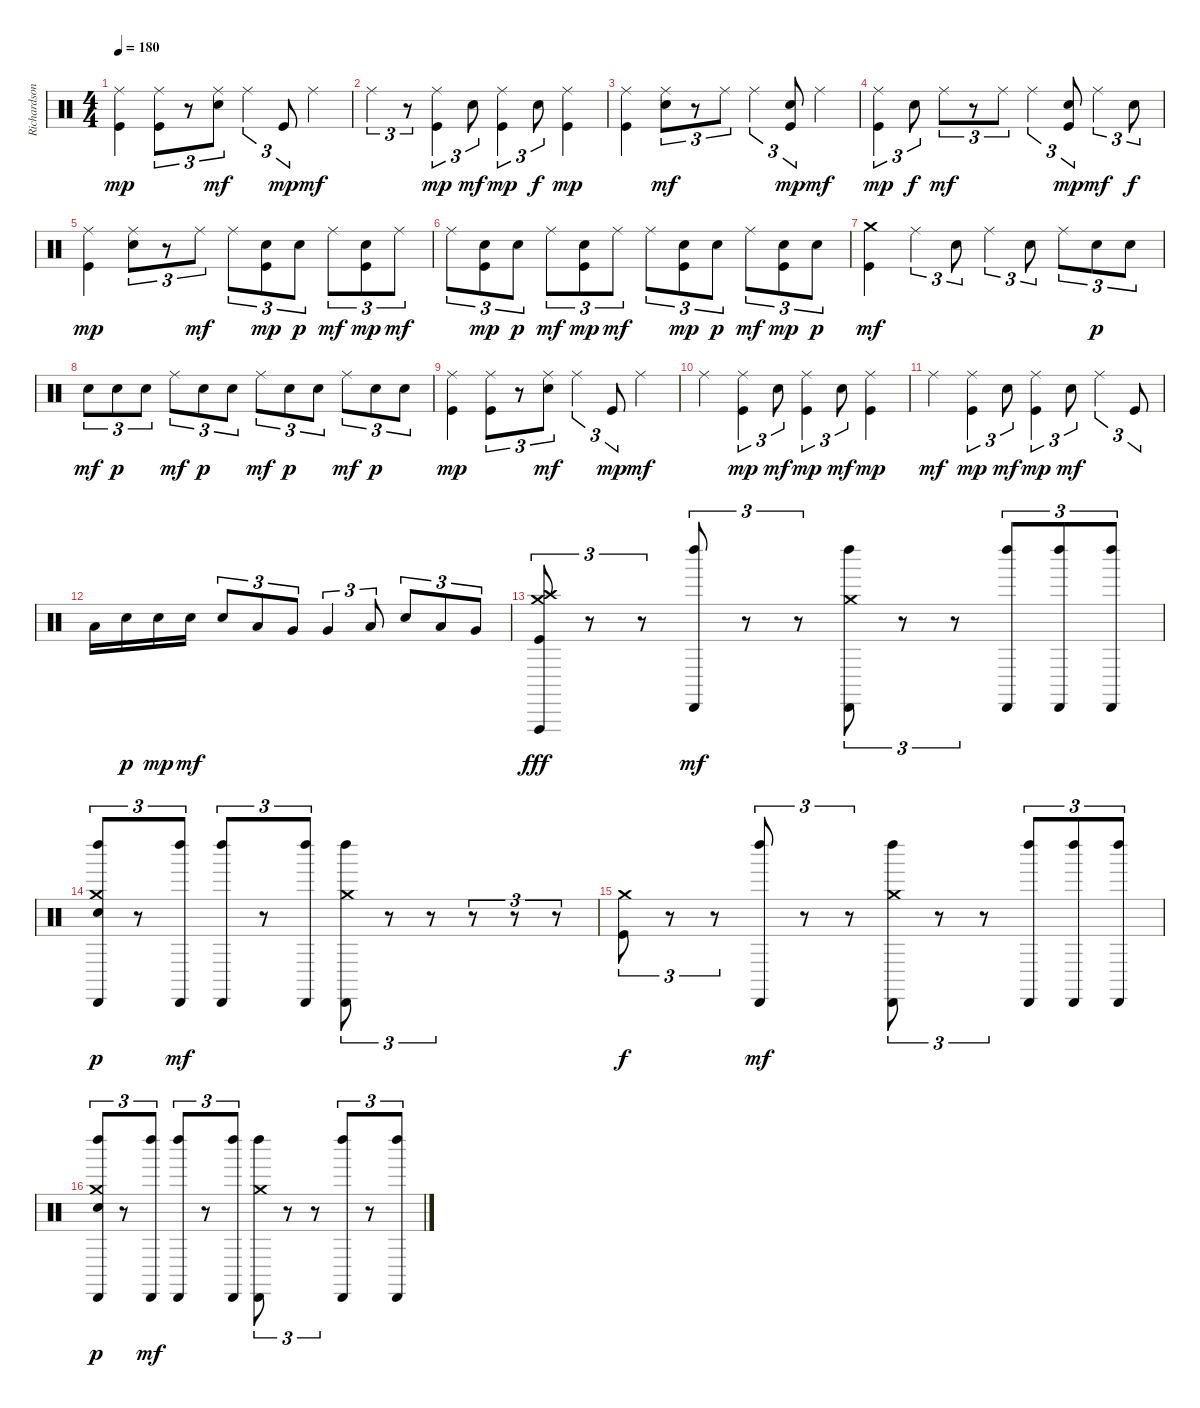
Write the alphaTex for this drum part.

\track ("Richardson" "Richardson") {instrument percussion}
\staff {score}
\articulation defaults
\ts (4 4)
\tempo 180
\clef neutral
\ks c
("Ride (middle)" "Kick (hit)").4{dy mp} ("Ride (middle)" "Kick (hit)").8{tu (3 2)} r.8{tu (3 2)} ("Ride (middle)" "Electric Snare (hit)").8{tu (3 2) dy mf} "Ride (middle)".4{tu (3 2)} "Kick (hit)".8{tu (3 2) dy mp} "Ride (middle)".4{dy mf} |
"Ride (middle)".4{tu (3 2)} r.8{tu (3 2)} ("Ride (middle)" "Kick (hit)").4{tu (3 2) dy mp} "Electric Snare (hit)".8{tu (3 2) dy mf} ("Ride (middle)" "Kick (hit)").4{tu (3 2) dy mp} "Electric Snare (hit)".8{tu (3 2) dy f} ("Ride (middle)" "Kick (hit)").4{dy mp} |
("Ride (middle)" "Kick (hit)").4 ("Ride (middle)" "Electric Snare (hit)").8{tu (3 2) dy mf} r.8{tu (3 2)} "Ride (middle)".8{tu (3 2)} "Ride (middle)".4{tu (3 2)} ("Electric Snare (hit)" "Kick (hit)").8{tu (3 2) dy mp} "Ride (middle)".4{dy mf} |
("Ride (middle)" "Kick (hit)").4{tu (3 2) dy mp} "Electric Snare (hit)".8{tu (3 2) dy f} "Ride (middle)".8{tu (3 2) dy mf} r.8{tu (3 2)} "Ride (middle)".8{tu (3 2)} "Ride (middle)".4{tu (3 2)} ("Electric Snare (hit)" "Kick (hit)").8{tu (3 2) dy mp} "Ride (middle)".4{tu (3 2) dy mf} "Electric Snare (hit)".8{tu (3 2) dy f} |
("Ride (middle)" "Kick (hit)").4{dy mp} ("Ride (middle)" "Electric Snare (hit)").8{tu (3 2)} r.8{tu (3 2)} "Ride (middle)".8{tu (3 2) dy mf} "Ride (middle)".8{tu (3 2)} ("Electric Snare (hit)" "Kick (hit)").8{tu (3 2) dy mp} "Electric Snare (hit)".8{tu (3 2) dy p} "Ride (middle)".8{tu (3 2) dy mf} ("Electric Snare (hit)" "Kick (hit)").8{tu (3 2) dy mp} "Ride (middle)".8{tu (3 2) dy mf} |
"Ride (middle)".8{tu (3 2)} ("Electric Snare (hit)" "Kick (hit)").8{tu (3 2) dy mp} "Electric Snare (hit)".8{tu (3 2) dy p} "Ride (middle)".8{tu (3 2) dy mf} ("Electric Snare (hit)" "Kick (hit)").8{tu (3 2) dy mp} "Ride (middle)".8{tu (3 2) dy mf} "Ride (middle)".8{tu (3 2)} ("Electric Snare (hit)" "Kick (hit)").8{tu (3 2) dy mp} "Electric Snare (hit)".8{tu (3 2) dy p} "Ride (middle)".8{tu (3 2) dy mf} ("Electric Snare (hit)" "Kick (hit)").8{tu (3 2) dy mp} "Electric Snare (hit)".8{tu (3 2) dy p} |
("Crash medium (hit)" "Kick (hit)").4{dy mf} "Ride (middle)".4{tu (3 2)} "Electric Snare (hit)".8{tu (3 2)} "Ride (middle)".4{tu (3 2)} "Electric Snare (hit)".8{tu (3 2)} "Ride (middle)".8{tu (3 2)} "Electric Snare (hit)".8{tu (3 2) dy p} "Electric Snare (hit)".8{tu (3 2)} |
"Electric Snare (hit)".8{tu (3 2) dy mf} "Electric Snare (hit)".8{tu (3 2) dy p} "Electric Snare (hit)".8{tu (3 2)} "Ride (middle)".8{tu (3 2) dy mf} "Electric Snare (hit)".8{tu (3 2) dy p} "Electric Snare (hit)".8{tu (3 2)} "Ride (middle)".8{tu (3 2) dy mf} "Electric Snare (hit)".8{tu (3 2) dy p} "Electric Snare (hit)".8{tu (3 2)} "Ride (middle)".8{tu (3 2) dy mf} "Electric Snare (hit)".8{tu (3 2) dy p} "Electric Snare (hit)".8{tu (3 2)} |
("Ride (middle)" "Kick (hit)").4{dy mp} ("Ride (middle)" "Kick (hit)").8{tu (3 2)} r.8{tu (3 2)} ("Ride (middle)" "Electric Snare (hit)").8{tu (3 2) dy mf} "Ride (middle)".4{tu (3 2)} "Kick (hit)".8{tu (3 2) dy mp} "Ride (middle)".4{dy mf} |
"Ride (middle)".4 ("Ride (middle)" "Kick (hit)").4{tu (3 2) dy mp} "Electric Snare (hit)".8{tu (3 2) dy mf} ("Ride (middle)" "Kick (hit)").4{tu (3 2) dy mp} "Electric Snare (hit)".8{tu (3 2) dy mf} ("Ride (middle)" "Kick (hit)").4{dy mp} |
"Ride (middle)".4{dy mf} ("Ride (middle)" "Kick (hit)").4{tu (3 2) dy mp} "Electric Snare (hit)".8{tu (3 2) dy mf} ("Ride (middle)" "Kick (hit)").4{tu (3 2) dy mp} "Electric Snare (hit)".8{tu (3 2) dy mf} "Ride (middle)".4{tu (3 2)} "Kick (hit)".8{tu (3 2)} |
"Low Tom (hit)".16 "Electric Snare (hit)".16{dy p} "Electric Snare (hit)".16{dy mp} "Electric Snare (hit)".16{dy mf} "Electric Snare (hit)".8{tu (3 2)} "Low Tom (hit)".8{tu (3 2)} "Very Low Tom (hit)".8{tu (3 2)} "Very Low Tom (hit)".4{tu (3 2)} "Low Floor Tom (hit)".8{tu (3 2)} "Electric Snare (hit)".8{tu (3 2)} "Low Tom (hit)".8{tu (3 2)} "Very Low Tom (hit)".8{tu (3 2)} |
("Crash medium (hit)" "Crash high (hit)" "Vibraslap (hit)" "Kick (hit)").8{tu (3 2) dy fff} r.8{tu (3 2)} r.8{tu (3 2)} ("Cabasa (hit)" "Left Maraca (hit)").8{tu (3 2) dy mf} r.8{tu (3 2)} r.8{tu (3 2)} ("Crash medium (hit)" "Cabasa (hit)" "Left Maraca (hit)").8{tu (3 2)} r.8{tu (3 2)} r.8{tu (3 2)} ("Cabasa (hit)" "Left Maraca (hit)").8{tu (3 2)} ("Cabasa (hit)" "Left Maraca (hit)").8{tu (3 2)} ("Cabasa (hit)" "Left Maraca (hit)").8{tu (3 2)} |
("Crash medium (hit)" "Left Maraca (hit)" "Electric Snare (hit)" "Cabasa (hit)").8{tu (3 2) dy p} r.8{tu (3 2)} ("Cabasa (hit)" "Left Maraca (hit)").8{tu (3 2) dy mf} ("Cabasa (hit)" "Left Maraca (hit)").8{tu (3 2)} r.8{tu (3 2)} ("Cabasa (hit)" "Left Maraca (hit)").8{tu (3 2)} ("Crash medium (hit)" "Cabasa (hit)" "Left Maraca (hit)").8{tu (3 2)} r.8{tu (3 2)} r.8{tu (3 2)} r.8{tu (3 2)} r.8{tu (3 2)} r.8{tu (3 2)} |
("Crash medium (hit)" "Kick (hit)").8{tu (3 2) dy f} r.8{tu (3 2)} r.8{tu (3 2)} ("Cabasa (hit)" "Left Maraca (hit)").8{tu (3 2) dy mf} r.8{tu (3 2)} r.8{tu (3 2)} ("Crash medium (hit)" "Cabasa (hit)" "Left Maraca (hit)").8{tu (3 2)} r.8{tu (3 2)} r.8{tu (3 2)} ("Cabasa (hit)" "Left Maraca (hit)").8{tu (3 2)} ("Cabasa (hit)" "Left Maraca (hit)").8{tu (3 2)} ("Cabasa (hit)" "Left Maraca (hit)").8{tu (3 2)} |
("Crash medium (hit)" "Left Maraca (hit)" "Electric Snare (hit)" "Cabasa (hit)").8{tu (3 2) dy p} r.8{tu (3 2)} ("Cabasa (hit)" "Left Maraca (hit)").8{tu (3 2) dy mf} ("Cabasa (hit)" "Left Maraca (hit)").8{tu (3 2)} r.8{tu (3 2)} ("Cabasa (hit)" "Left Maraca (hit)").8{tu (3 2)} ("Crash medium (hit)" "Cabasa (hit)" "Left Maraca (hit)").8{tu (3 2)} r.8{tu (3 2)} r.8{tu (3 2)} ("Cabasa (hit)" "Left Maraca (hit)").8{tu (3 2)} r.8{tu (3 2)} ("Cabasa (hit)" "Left Maraca (hit)").8{tu (3 2)}
